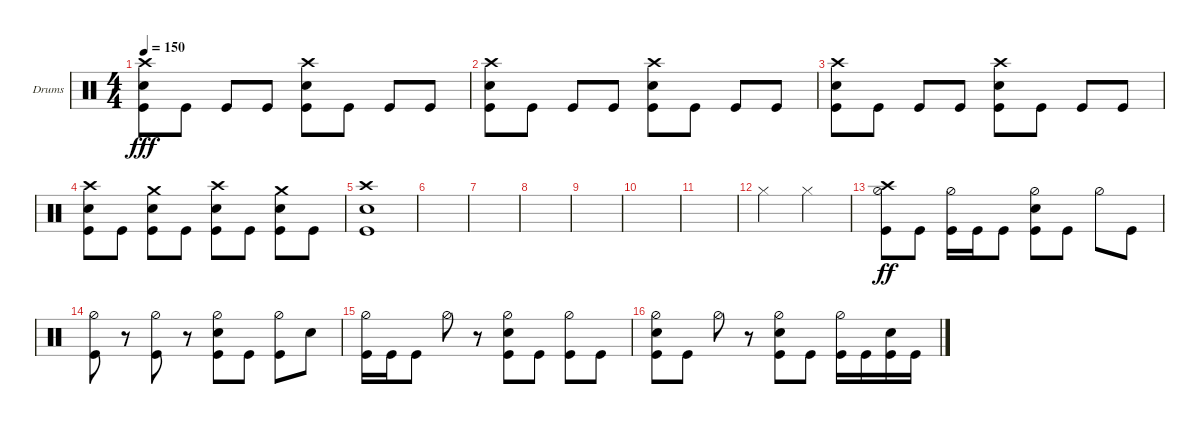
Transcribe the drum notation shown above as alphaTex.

\bracketExtendMode groupsimilarinstruments
\firstSystemTrackNameOrientation horizontal
\otherSystemsTrackNameOrientation horizontal
\track ("Corey" "Drums") {instrument percussion}
\staff {score}
\articulation defaults
\ts (4 4)
\tempo 150
\clef neutral
\ks c
("Kick (hit)" "Snare (hit) 2" "Crash high (hit)").8{dy fff} "Kick (hit)".8 "Kick (hit)".8 "Kick (hit)".8 ("Kick (hit)" "Snare (hit) 2" "Crash high (hit)").8 "Kick (hit)".8 "Kick (hit)".8 "Kick (hit)".8 |
("Kick (hit)" "Snare (hit) 2" "Crash high (hit)").8 "Kick (hit)".8 "Kick (hit)".8 "Kick (hit)".8 ("Kick (hit)" "Snare (hit) 2" "Crash high (hit)").8 "Kick (hit)".8 "Kick (hit)".8 "Kick (hit)".8 |
("Kick (hit)" "Snare (hit) 2" "Crash high (hit)").8 "Kick (hit)".8 "Kick (hit)".8 "Kick (hit)".8 ("Kick (hit)" "Snare (hit) 2" "Crash high (hit)").8 "Kick (hit)".8 "Kick (hit)".8 "Kick (hit)".8 |
("Kick (hit)" "Snare (hit) 2" "Crash high (hit)").8 "Kick (hit)".8 ("Kick (hit)" "Snare (hit) 2" "Crash medium (hit)").8 "Kick (hit)".8 ("Kick (hit)" "Snare (hit) 2" "Crash high (hit)").8 "Kick (hit)".8 ("Kick (hit)" "Snare (hit) 2" "Crash medium (hit)").8 "Kick (hit)".8 |
("Crash high (hit)" "Snare (hit) 2" "Kick (hit)").1 |
|
|
|
|
|
|
"Hi-Hat (closed)".2 "Hi-Hat (closed)".2 |
("Kick (hit)" "Hi-Hat (half)" "Crash high (hit)").8{dy ff} "Kick (hit)".8 ("Kick (hit)" "Hi-Hat (half)").16 "Kick (hit)".16 "Kick (hit)".8 ("Kick (hit)" "Hi-Hat (half)" "Snare (hit) 2").8 "Kick (hit)".8 "Hi-Hat (half)".8 "Kick (hit)".8 |
("Kick (hit)" "Hi-Hat (half)").8 r.8 ("Kick (hit)" "Hi-Hat (half)").8 r.8 ("Kick (hit)" "Hi-Hat (half)" "Snare (hit) 2").8 "Kick (hit)".8 ("Kick (hit)" "Hi-Hat (half)").8 "Snare (hit) 2".8 |
("Kick (hit)" "Hi-Hat (half)").16 "Kick (hit)".16 "Kick (hit)".8 "Hi-Hat (half)".8 r.8 ("Kick (hit)" "Hi-Hat (half)" "Snare (hit) 2").8 "Kick (hit)".8 ("Kick (hit)" "Hi-Hat (half)").8 "Kick (hit)".8 |
("Kick (hit)" "Hi-Hat (half)" "Snare (hit) 2").8 "Kick (hit)".8 "Hi-Hat (half)".8 r.8 ("Kick (hit)" "Hi-Hat (half)" "Snare (hit) 2").8 "Kick (hit)".8 ("Kick (hit)" "Hi-Hat (half)").16 "Kick (hit)".16 ("Kick (hit)" "Snare (hit) 2").16 "Kick (hit)".16
